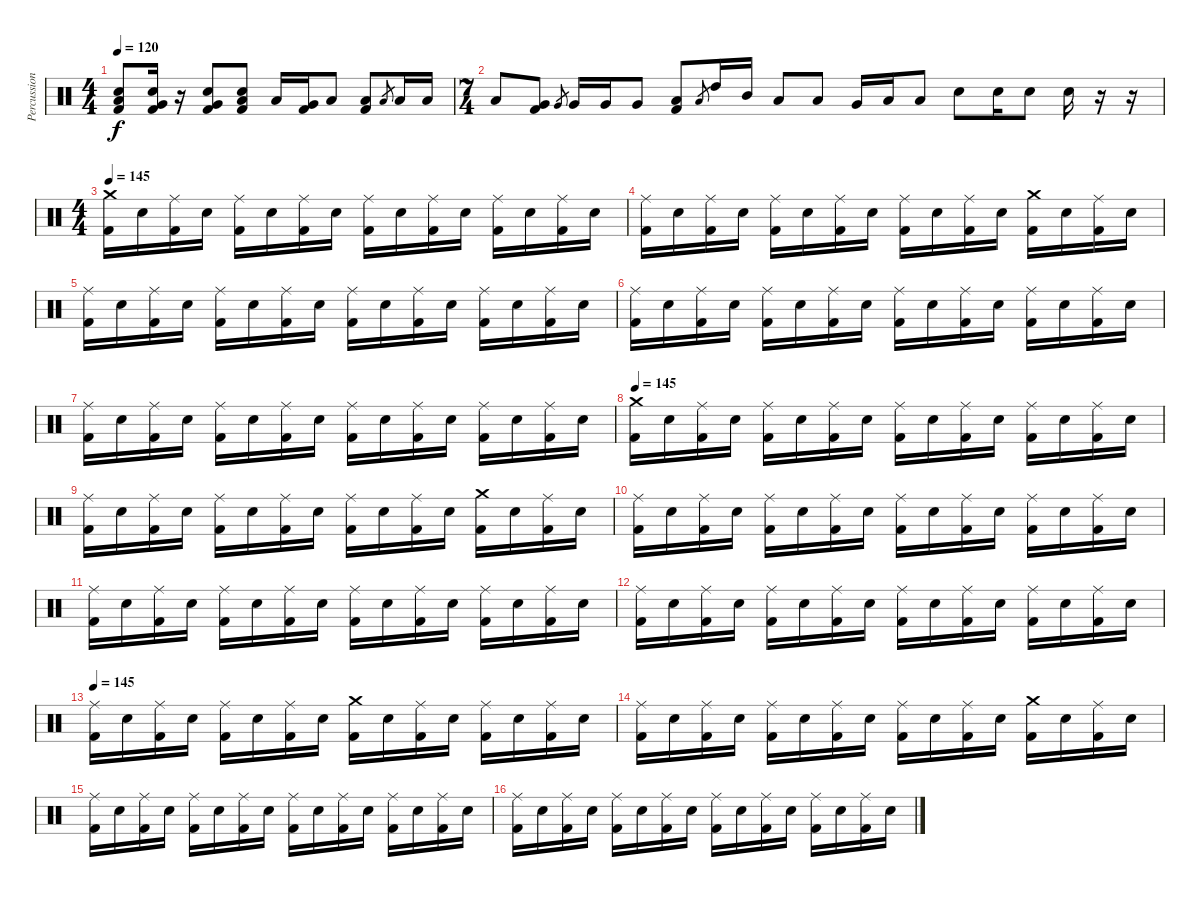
\track ("Percussion" "Percussion") {instrument percussion}
\staff {score}
\articulation defaults
\ts (4 4)
\tempo 120
\clef neutral
\ks c
("Low Tom (hit)" "Snare (hit) 2" "Kick (hit) 2").8{dy f} ("Very Low Tom (hit)" "Snare (hit) 2" "Kick (hit) 2").16 r.16 ("Very Low Tom (hit)" "Snare (hit) 2" "Kick (hit) 2").8 ("Low Floor Tom (hit)" "Snare (hit) 2" "Kick (hit) 2").8 "Low Tom (hit)".16 ("Very Low Tom (hit)" "Kick (hit) 2").16 "Low Floor Tom (hit)".8 ("Low Tom (hit)" "Kick (hit) 2").8 "Low Tom (hit)".8{gr} "Low Tom (hit)".16 "Low Tom (hit)".16 |
\ts (7 4)
"Low Tom (hit)".8 ("Very Low Tom (hit)" "Kick (hit) 2").8 "Very Low Tom (hit)".8{gr} "Very Low Tom (hit)".16 "Very Low Tom (hit)".16 "Very Low Tom (hit)".8 ("Low Floor Tom (hit)" "Kick (hit) 2").8 "Low Floor Tom (hit)".8{gr} "High Tom (hit)".16 "Mid Tom (hit)".16 "Low Tom (hit)".8 "Low Tom (hit)".8 "Very Low Tom (hit)".16 "Low Floor Tom (hit)".16 "Low Floor Tom (hit)".8 "Snare (hit) 2".8 "Snare (hit) 2".16 "Snare (hit) 2".8 "Snare (hit) 2".16 r.16 r.16 |
\ts (4 4)
\tempo 145
("Crash medium (hit)" "Kick (hit) 2").16 "Snare (hit) 2".16 ("Ride (middle)" "Kick (hit) 2").16 "Snare (hit) 2".16 ("Ride (middle)" "Kick (hit) 2").16 "Snare (hit) 2".16 ("Ride (middle)" "Kick (hit) 2").16 "Snare (hit) 2".16 ("Ride (middle)" "Kick (hit) 2").16 "Snare (hit) 2".16 ("Ride (middle)" "Kick (hit) 2").16 "Snare (hit) 2".16 ("Ride (middle)" "Kick (hit) 2").16 "Snare (hit) 2".16 ("Ride (middle)" "Kick (hit) 2").16 "Snare (hit) 2".16 |
("Ride (middle)" "Kick (hit) 2").16 "Snare (hit) 2".16 ("Ride (middle)" "Kick (hit) 2").16 "Snare (hit) 2".16 ("Ride (middle)" "Kick (hit) 2").16 "Snare (hit) 2".16 ("Ride (middle)" "Kick (hit) 2").16 "Snare (hit) 2".16 ("Ride (middle)" "Kick (hit) 2").16 "Snare (hit) 2".16 ("Ride (middle)" "Kick (hit) 2").16 "Snare (hit) 2".16 ("Crash medium (hit)" "Kick (hit) 2").16 "Snare (hit) 2".16 ("Ride (middle)" "Kick (hit) 2").16 "Snare (hit) 2".16 |
("Ride (middle)" "Kick (hit) 2").16 "Snare (hit) 2".16 ("Ride (middle)" "Kick (hit) 2").16 "Snare (hit) 2".16 ("Ride (middle)" "Kick (hit) 2").16 "Snare (hit) 2".16 ("Ride (middle)" "Kick (hit) 2").16 "Snare (hit) 2".16 ("Ride (middle)" "Kick (hit) 2").16 "Snare (hit) 2".16 ("Ride (middle)" "Kick (hit) 2").16 "Snare (hit) 2".16 ("Ride (middle)" "Kick (hit) 2").16 "Snare (hit) 2".16 ("Ride (middle)" "Kick (hit) 2").16 "Snare (hit) 2".16 |
("Ride (middle)" "Kick (hit) 2").16 "Snare (hit) 2".16 ("Ride (middle)" "Kick (hit) 2").16 "Snare (hit) 2".16 ("Ride (middle)" "Kick (hit) 2").16 "Snare (hit) 2".16 ("Ride (middle)" "Kick (hit) 2").16 "Snare (hit) 2".16 ("Ride (middle)" "Kick (hit) 2").16 "Snare (hit) 2".16 ("Ride (middle)" "Kick (hit) 2").16 "Snare (hit) 2".16 ("Ride (middle)" "Kick (hit) 2").16 "Snare (hit) 2".16 ("Ride (middle)" "Kick (hit) 2").16 "Snare (hit) 2".16 |
("Ride (middle)" "Kick (hit) 2").16 "Snare (hit) 2".16 ("Ride (middle)" "Kick (hit) 2").16 "Snare (hit) 2".16 ("Ride (middle)" "Kick (hit) 2").16 "Snare (hit) 2".16 ("Ride (middle)" "Kick (hit) 2").16 "Snare (hit) 2".16 ("Ride (middle)" "Kick (hit) 2").16 "Snare (hit) 2".16 ("Ride (middle)" "Kick (hit) 2").16 "Snare (hit) 2".16 ("Ride (middle)" "Kick (hit) 2").16 "Snare (hit) 2".16 ("Ride (middle)" "Kick (hit) 2").16 "Snare (hit) 2".16 |
\tempo 145
("Crash medium (hit)" "Kick (hit) 2").16 "Snare (hit) 2".16 ("Ride (middle)" "Kick (hit) 2").16 "Snare (hit) 2".16 ("Ride (middle)" "Kick (hit) 2").16 "Snare (hit) 2".16 ("Ride (middle)" "Kick (hit) 2").16 "Snare (hit) 2".16 ("Ride (middle)" "Kick (hit) 2").16 "Snare (hit) 2".16 ("Ride (middle)" "Kick (hit) 2").16 "Snare (hit) 2".16 ("Ride (middle)" "Kick (hit) 2").16 "Snare (hit) 2".16 ("Ride (middle)" "Kick (hit) 2").16 "Snare (hit) 2".16 |
("Ride (middle)" "Kick (hit) 2").16 "Snare (hit) 2".16 ("Ride (middle)" "Kick (hit) 2").16 "Snare (hit) 2".16 ("Ride (middle)" "Kick (hit) 2").16 "Snare (hit) 2".16 ("Ride (middle)" "Kick (hit) 2").16 "Snare (hit) 2".16 ("Ride (middle)" "Kick (hit) 2").16 "Snare (hit) 2".16 ("Ride (middle)" "Kick (hit) 2").16 "Snare (hit) 2".16 ("Crash medium (hit)" "Kick (hit) 2").16 "Snare (hit) 2".16 ("Ride (middle)" "Kick (hit) 2").16 "Snare (hit) 2".16 |
("Ride (middle)" "Kick (hit) 2").16 "Snare (hit) 2".16 ("Ride (middle)" "Kick (hit) 2").16 "Snare (hit) 2".16 ("Ride (middle)" "Kick (hit) 2").16 "Snare (hit) 2".16 ("Ride (middle)" "Kick (hit) 2").16 "Snare (hit) 2".16 ("Ride (middle)" "Kick (hit) 2").16 "Snare (hit) 2".16 ("Ride (middle)" "Kick (hit) 2").16 "Snare (hit) 2".16 ("Ride (middle)" "Kick (hit) 2").16 "Snare (hit) 2".16 ("Ride (middle)" "Kick (hit) 2").16 "Snare (hit) 2".16 |
("Ride (middle)" "Kick (hit) 2").16 "Snare (hit) 2".16 ("Ride (middle)" "Kick (hit) 2").16 "Snare (hit) 2".16 ("Ride (middle)" "Kick (hit) 2").16 "Snare (hit) 2".16 ("Ride (middle)" "Kick (hit) 2").16 "Snare (hit) 2".16 ("Ride (middle)" "Kick (hit) 2").16 "Snare (hit) 2".16 ("Ride (middle)" "Kick (hit) 2").16 "Snare (hit) 2".16 ("Ride (middle)" "Kick (hit) 2").16 "Snare (hit) 2".16 ("Ride (middle)" "Kick (hit) 2").16 "Snare (hit) 2".16 |
("Ride (middle)" "Kick (hit) 2").16 "Snare (hit) 2".16 ("Ride (middle)" "Kick (hit) 2").16 "Snare (hit) 2".16 ("Ride (middle)" "Kick (hit) 2").16 "Snare (hit) 2".16 ("Ride (middle)" "Kick (hit) 2").16 "Snare (hit) 2".16 ("Ride (middle)" "Kick (hit) 2").16 "Snare (hit) 2".16 ("Ride (middle)" "Kick (hit) 2").16 "Snare (hit) 2".16 ("Ride (middle)" "Kick (hit) 2").16 "Snare (hit) 2".16 ("Ride (middle)" "Kick (hit) 2").16 "Snare (hit) 2".16 |
\tempo 145
("Ride (middle)" "Kick (hit) 2").16 "Snare (hit) 2".16 ("Ride (middle)" "Kick (hit) 2").16 "Snare (hit) 2".16 ("Ride (middle)" "Kick (hit) 2").16 "Snare (hit) 2".16 ("Ride (middle)" "Kick (hit) 2").16 "Snare (hit) 2".16 ("Crash medium (hit)" "Kick (hit) 2").16 "Snare (hit) 2".16 ("Ride (middle)" "Kick (hit) 2").16 "Snare (hit) 2".16 ("Ride (middle)" "Kick (hit) 2").16 "Snare (hit) 2".16 ("Ride (middle)" "Kick (hit) 2").16 "Snare (hit) 2".16 |
("Ride (middle)" "Kick (hit) 2").16 "Snare (hit) 2".16 ("Ride (middle)" "Kick (hit) 2").16 "Snare (hit) 2".16 ("Ride (middle)" "Kick (hit) 2").16 "Snare (hit) 2".16 ("Ride (middle)" "Kick (hit) 2").16 "Snare (hit) 2".16 ("Ride (middle)" "Kick (hit) 2").16 "Snare (hit) 2".16 ("Ride (middle)" "Kick (hit) 2").16 "Snare (hit) 2".16 ("Crash medium (hit)" "Kick (hit) 2").16 "Snare (hit) 2".16 ("Ride (middle)" "Kick (hit) 2").16 "Snare (hit) 2".16 |
("Ride (middle)" "Kick (hit) 2").16 "Snare (hit) 2".16 ("Ride (middle)" "Kick (hit) 2").16 "Snare (hit) 2".16 ("Ride (middle)" "Kick (hit) 2").16 "Snare (hit) 2".16 ("Ride (middle)" "Kick (hit) 2").16 "Snare (hit) 2".16 ("Ride (middle)" "Kick (hit) 2").16 "Snare (hit) 2".16 ("Ride (middle)" "Kick (hit) 2").16 "Snare (hit) 2".16 ("Ride (middle)" "Kick (hit) 2").16 "Snare (hit) 2".16 ("Ride (middle)" "Kick (hit) 2").16 "Snare (hit) 2".16 |
("Ride (middle)" "Kick (hit) 2").16 "Snare (hit) 2".16 ("Ride (middle)" "Kick (hit) 2").16 "Snare (hit) 2".16 ("Ride (middle)" "Kick (hit) 2").16 "Snare (hit) 2".16 ("Ride (middle)" "Kick (hit) 2").16 "Snare (hit) 2".16 ("Ride (middle)" "Kick (hit) 2").16 "Snare (hit) 2".16 ("Ride (middle)" "Kick (hit) 2").16 "Snare (hit) 2".16 ("Ride (middle)" "Kick (hit) 2").16 "Snare (hit) 2".16 ("Ride (middle)" "Kick (hit) 2").16 "Snare (hit) 2".16
